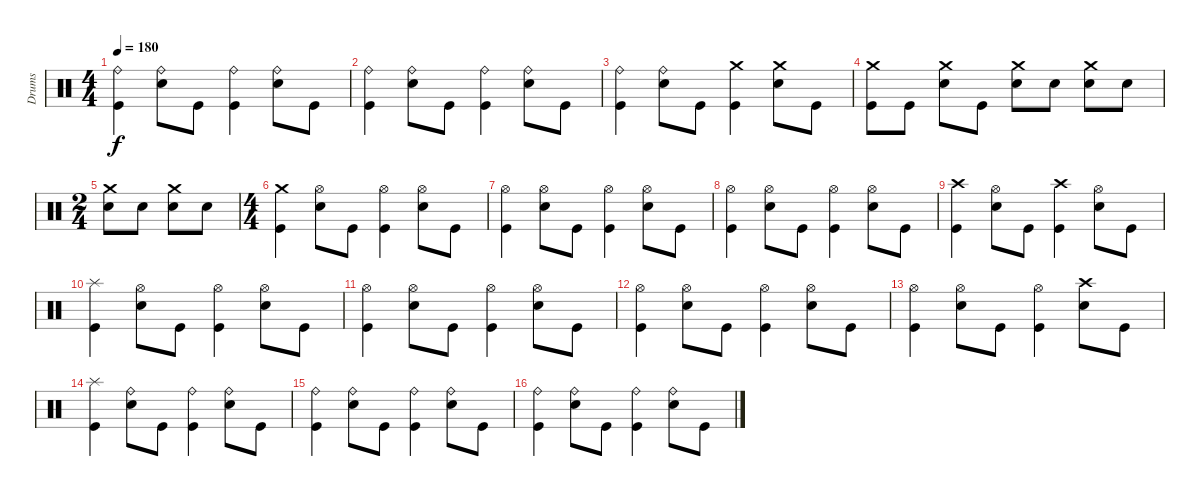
\track ("Drums" "Drums") {instrument percussion}
\staff {score}
\articulation defaults
\ts (4 4)
\tempo 180
\clef neutral
\ks c
("Ride (bell)" "Kick (hit)").4{dy f} ("Ride (bell)" "Snare (hit) 2").8 "Kick (hit)".8 ("Ride (bell)" "Kick (hit)").4 ("Ride (bell)" "Snare (hit) 2").8 "Kick (hit)".8 |
("Ride (bell)" "Kick (hit)").4 ("Ride (bell)" "Snare (hit) 2").8 "Kick (hit)".8 ("Ride (bell)" "Kick (hit)").4 ("Ride (bell)" "Snare (hit) 2").8 "Kick (hit)".8 |
("Ride (bell)" "Kick (hit)").4 ("Ride (bell)" "Snare (hit) 2").8 "Kick (hit)".8 ("Crash medium (hit)" "Kick (hit)").4 ("Crash medium (hit)" "Snare (hit) 2").8 "Kick (hit)".8 |
("Crash medium (hit)" "Kick (hit)").8 "Kick (hit)".8 ("Crash medium (hit)" "Snare (hit) 2").8 "Kick (hit)".8 ("Crash medium (hit)" "Snare (hit) 2").8 "Snare (hit) 2".8 ("Crash medium (hit)" "Snare (hit) 2").8 "Snare (hit) 2".8 |
\ts (2 4)
("Crash medium (hit)" "Snare (hit) 2").8 "Snare (hit) 2".8 ("Crash medium (hit)" "Snare (hit) 2").8 "Snare (hit) 2".8 |
\ts (4 4)
("Crash medium (hit)" "Kick (hit)").4 ("Hi-Hat (open)" "Electric Snare (hit)").8 "Kick (hit)".8 ("Hi-Hat (open)" "Kick (hit)").4 ("Hi-Hat (open)" "Electric Snare (hit)").8 "Kick (hit)".8 |
("Hi-Hat (open)" "Kick (hit)").4 ("Hi-Hat (open)" "Electric Snare (hit)").8 "Kick (hit)".8 ("Hi-Hat (open)" "Kick (hit)").4 ("Hi-Hat (open)" "Electric Snare (hit)").8 "Kick (hit)".8 |
("Hi-Hat (open)" "Kick (hit)").4 ("Hi-Hat (open)" "Electric Snare (hit)").8 "Kick (hit)".8 ("Hi-Hat (open)" "Kick (hit)").4 ("Hi-Hat (open)" "Electric Snare (hit)").8 "Kick (hit)".8 |
("Crash high (hit)" "Kick (hit)").4 ("Hi-Hat (open)" "Electric Snare (hit)").8 "Kick (hit)".8 ("Crash high (hit)" "Kick (hit)").4 ("Hi-Hat (open)" "Electric Snare (hit)").8 "Kick (hit)".8 |
("Splash (hit)" "Kick (hit)").4 ("Hi-Hat (open)" "Electric Snare (hit)").8 "Kick (hit)".8 ("Hi-Hat (open)" "Kick (hit)").4 ("Hi-Hat (open)" "Electric Snare (hit)").8 "Kick (hit)".8 |
("Hi-Hat (open)" "Kick (hit)").4 ("Hi-Hat (open)" "Electric Snare (hit)").8 "Kick (hit)".8 ("Hi-Hat (open)" "Kick (hit)").4 ("Hi-Hat (open)" "Electric Snare (hit)").8 "Kick (hit)".8 |
("Hi-Hat (open)" "Kick (hit)").4 ("Hi-Hat (open)" "Electric Snare (hit)").8 "Kick (hit)".8 ("Hi-Hat (open)" "Kick (hit)").4 ("Hi-Hat (open)" "Electric Snare (hit)").8 "Kick (hit)".8 |
("Hi-Hat (open)" "Kick (hit)").4 ("Hi-Hat (open)" "Electric Snare (hit)").8 "Kick (hit)".8 ("Hi-Hat (open)" "Kick (hit)").4 ("Crash high (hit)" "Electric Snare (hit)").8 "Kick (hit)".8 |
("Splash (hit)" "Kick (hit)").4 ("Ride (bell)" "Snare (hit) 2").8 "Kick (hit)".8 ("Ride (bell)" "Kick (hit)").4 ("Ride (bell)" "Snare (hit) 2").8 "Kick (hit)".8 |
("Ride (bell)" "Kick (hit)").4 ("Ride (bell)" "Snare (hit) 2").8 "Kick (hit)".8 ("Ride (bell)" "Kick (hit)").4 ("Ride (bell)" "Snare (hit) 2").8 "Kick (hit)".8 |
("Ride (bell)" "Kick (hit)").4 ("Ride (bell)" "Snare (hit) 2").8 "Kick (hit)".8 ("Ride (bell)" "Kick (hit)").4 ("Ride (bell)" "Snare (hit) 2").8 "Kick (hit)".8
